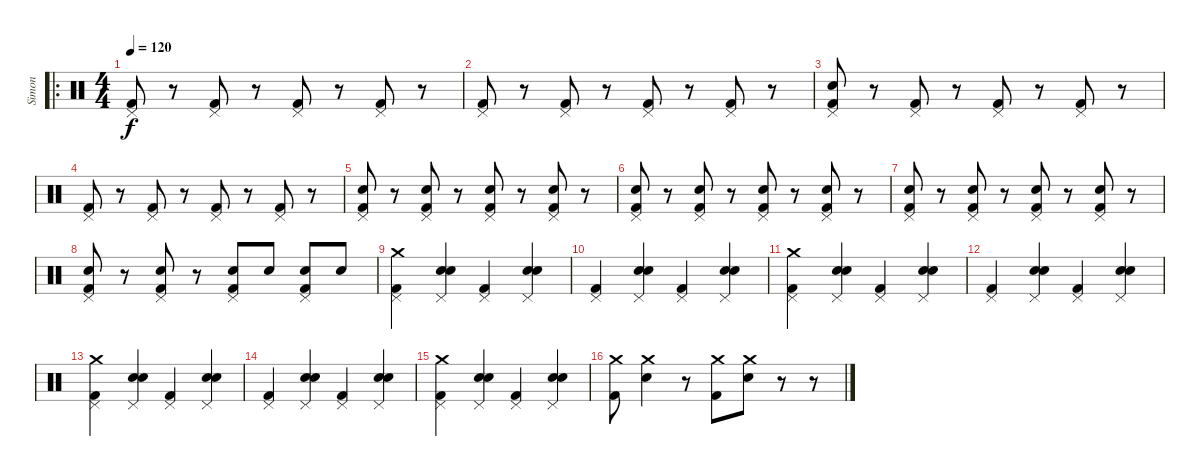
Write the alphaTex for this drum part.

\track ("Simon" "Simon") {instrument percussion}
\staff {score}
\articulation defaults
\ro
\ts (4 4)
\tempo 120
\clef neutral
\ks c
("Kick (hit) 2" "Pedal Hi-Hat (hit)").8{dy f} r.8 ("Kick (hit) 2" "Pedal Hi-Hat (hit)").8 r.8 ("Kick (hit) 2" "Pedal Hi-Hat (hit)").8 r.8 ("Kick (hit) 2" "Pedal Hi-Hat (hit)").8 r.8 |
("Kick (hit) 2" "Pedal Hi-Hat (hit)").8 r.8 ("Kick (hit) 2" "Pedal Hi-Hat (hit)").8 r.8 ("Kick (hit) 2" "Pedal Hi-Hat (hit)").8 r.8 ("Kick (hit) 2" "Pedal Hi-Hat (hit)").8 r.8 |
("Kick (hit) 2" "Electric Snare (hit)" "Pedal Hi-Hat (hit)").8 r.8 ("Kick (hit) 2" "Pedal Hi-Hat (hit)").8 r.8 ("Kick (hit) 2" "Pedal Hi-Hat (hit)").8 r.8 ("Kick (hit) 2" "Pedal Hi-Hat (hit)").8 r.8 |
("Kick (hit) 2" "Pedal Hi-Hat (hit)").8 r.8 ("Kick (hit) 2" "Pedal Hi-Hat (hit)").8 r.8 ("Kick (hit) 2" "Pedal Hi-Hat (hit)").8 r.8 ("Kick (hit) 2" "Pedal Hi-Hat (hit)").8 r.8 |
("Kick (hit) 2" "Electric Snare (hit)" "Pedal Hi-Hat (hit)").8 r.8 ("Kick (hit) 2" "Electric Snare (hit)" "Pedal Hi-Hat (hit)").8 r.8 ("Kick (hit) 2" "Electric Snare (hit)" "Pedal Hi-Hat (hit)").8 r.8 ("Kick (hit) 2" "Electric Snare (hit)" "Pedal Hi-Hat (hit)").8 r.8 |
("Kick (hit) 2" "Electric Snare (hit)" "Pedal Hi-Hat (hit)").8 r.8 ("Kick (hit) 2" "Electric Snare (hit)" "Pedal Hi-Hat (hit)").8 r.8 ("Kick (hit) 2" "Electric Snare (hit)" "Pedal Hi-Hat (hit)").8 r.8 ("Kick (hit) 2" "Electric Snare (hit)" "Pedal Hi-Hat (hit)").8 r.8 |
("Kick (hit) 2" "Electric Snare (hit)" "Pedal Hi-Hat (hit)").8 r.8 ("Kick (hit) 2" "Electric Snare (hit)" "Pedal Hi-Hat (hit)").8 r.8 ("Kick (hit) 2" "Electric Snare (hit)" "Pedal Hi-Hat (hit)").8 r.8 ("Kick (hit) 2" "Electric Snare (hit)" "Pedal Hi-Hat (hit)").8 r.8 |
("Kick (hit) 2" "Electric Snare (hit)" "Pedal Hi-Hat (hit)").8 r.8 ("Kick (hit) 2" "Electric Snare (hit)" "Pedal Hi-Hat (hit)").8 r.8 ("Kick (hit) 2" "Electric Snare (hit)" "Pedal Hi-Hat (hit)").8 "Electric Snare (hit)".8 ("Kick (hit) 2" "Electric Snare (hit)" "Pedal Hi-Hat (hit)").8 "Electric Snare (hit)".8 |
("Kick (hit) 2" "Crash medium (hit)" "Pedal Hi-Hat (hit)").4 ("Snare (hit) 2" "Electric Snare (hit)" "Pedal Hi-Hat (hit)").4 ("Kick (hit) 2" "Pedal Hi-Hat (hit)").4 ("Snare (hit) 2" "Electric Snare (hit)" "Pedal Hi-Hat (hit)").4 |
("Kick (hit) 2" "Pedal Hi-Hat (hit)").4 ("Snare (hit) 2" "Electric Snare (hit)" "Pedal Hi-Hat (hit)").4 ("Kick (hit) 2" "Pedal Hi-Hat (hit)").4 ("Snare (hit) 2" "Electric Snare (hit)" "Pedal Hi-Hat (hit)").4 |
("Kick (hit) 2" "Crash medium (hit)" "Pedal Hi-Hat (hit)").4 ("Snare (hit) 2" "Electric Snare (hit)" "Pedal Hi-Hat (hit)").4 ("Kick (hit) 2" "Pedal Hi-Hat (hit)").4 ("Snare (hit) 2" "Electric Snare (hit)" "Pedal Hi-Hat (hit)").4 |
("Kick (hit) 2" "Pedal Hi-Hat (hit)").4 ("Snare (hit) 2" "Electric Snare (hit)" "Pedal Hi-Hat (hit)").4 ("Kick (hit) 2" "Pedal Hi-Hat (hit)").4 ("Snare (hit) 2" "Electric Snare (hit)" "Pedal Hi-Hat (hit)").4 |
("Kick (hit) 2" "Crash medium (hit)" "Pedal Hi-Hat (hit)").4 ("Snare (hit) 2" "Electric Snare (hit)" "Pedal Hi-Hat (hit)").4 ("Kick (hit) 2" "Pedal Hi-Hat (hit)").4 ("Snare (hit) 2" "Electric Snare (hit)" "Pedal Hi-Hat (hit)").4 |
("Kick (hit) 2" "Pedal Hi-Hat (hit)").4 ("Snare (hit) 2" "Electric Snare (hit)" "Pedal Hi-Hat (hit)").4 ("Kick (hit) 2" "Pedal Hi-Hat (hit)").4 ("Snare (hit) 2" "Electric Snare (hit)" "Pedal Hi-Hat (hit)").4 |
("Kick (hit) 2" "Crash medium (hit)" "Pedal Hi-Hat (hit)").4 ("Snare (hit) 2" "Electric Snare (hit)" "Pedal Hi-Hat (hit)").4 ("Kick (hit) 2" "Pedal Hi-Hat (hit)").4 ("Snare (hit) 2" "Electric Snare (hit)" "Pedal Hi-Hat (hit)").4 |
("Kick (hit) 2" "Crash medium (hit)").8 ("Snare (hit) 2" "Crash medium (hit)").4 r.8 ("Kick (hit) 2" "Crash medium (hit)").8 ("Snare (hit) 2" "Crash medium (hit)").8 r.8 r.8
